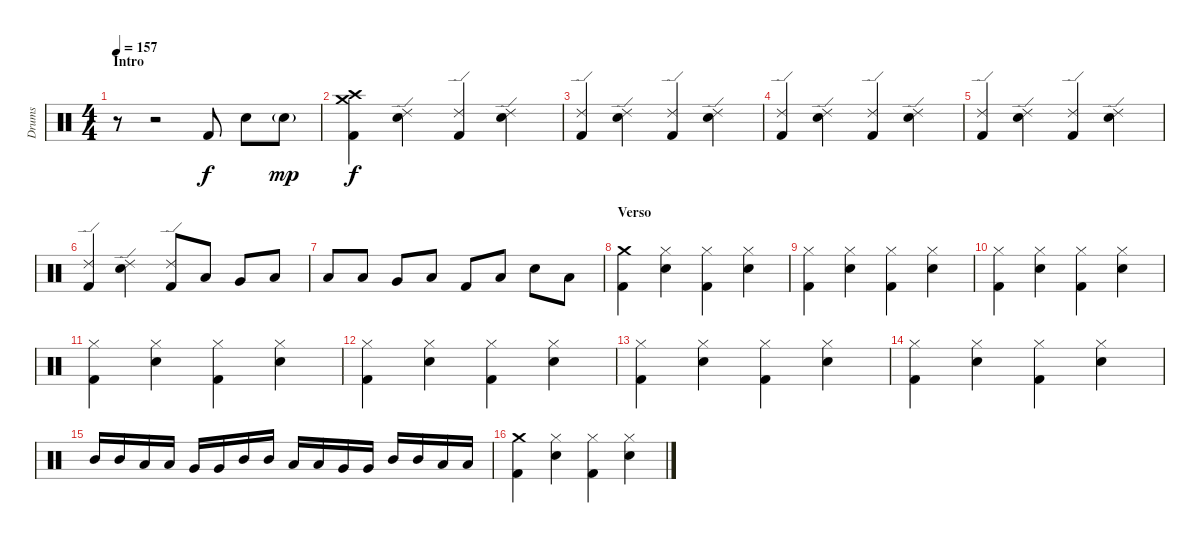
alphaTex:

\track ("Drums" "Drums") {instrument percussion}
\staff {score}
\articulation defaults
\ts (4 4)
\section ("" "Intro")
\tempo 157
\clef neutral
\ks c
r.8{dy f} r.2 "Kick (hit) 2".8 "Electric Snare (hit)".8 "Electric Snare (hit)"{g}.8{dy mp} |
("Crash medium (hit)" "Crash high (hit)" "Kick (hit) 2").4{dy f} ("Ride (edge) 2" "Electric Snare (hit)").4 ("Ride (edge) 2" "Kick (hit) 2").4 ("Ride (edge) 2" "Electric Snare (hit)").4 |
("Ride (edge) 2" "Kick (hit) 2").4 ("Ride (edge) 2" "Electric Snare (hit)").4 ("Ride (edge) 2" "Kick (hit) 2").4 ("Ride (edge) 2" "Electric Snare (hit)").4 |
("Ride (edge) 2" "Kick (hit) 2").4 ("Ride (edge) 2" "Electric Snare (hit)").4 ("Ride (edge) 2" "Kick (hit) 2").4 ("Ride (edge) 2" "Electric Snare (hit)").4 |
("Ride (edge) 2" "Kick (hit) 2").4 ("Ride (edge) 2" "Electric Snare (hit)").4 ("Ride (edge) 2" "Kick (hit) 2").4 ("Ride (edge) 2" "Electric Snare (hit)").4 |
("Ride (edge) 2" "Kick (hit) 2").4 ("Ride (edge) 2" "Electric Snare (hit)").4 ("Ride (edge) 2" "Kick (hit) 2").8 "Low Tom (hit)".8 "Very Low Tom (hit)".8 "Low Floor Tom (hit)".8 |
"Low Tom (hit)".8 "Low Tom (hit)".8 "Very Low Tom (hit)".8 "Low Floor Tom (hit)".8 "Kick (hit) 2".8 "Low Floor Tom (hit)".8 "Electric Snare (hit)".8 "Low Floor Tom (hit)".8 |
\section ("" "Verso")
("Crash medium (hit)" "Kick (hit) 2").4 ("Hi-Hat (closed)" "Electric Snare (hit)").4 ("Hi-Hat (closed)" "Kick (hit) 2").4 ("Hi-Hat (closed)" "Electric Snare (hit)").4 |
("Hi-Hat (closed)" "Kick (hit) 2").4 ("Hi-Hat (closed)" "Electric Snare (hit)").4 ("Hi-Hat (closed)" "Kick (hit) 2").4 ("Hi-Hat (closed)" "Electric Snare (hit)").4 |
("Hi-Hat (closed)" "Kick (hit) 2").4 ("Hi-Hat (closed)" "Electric Snare (hit)").4 ("Hi-Hat (closed)" "Kick (hit) 2").4 ("Hi-Hat (closed)" "Electric Snare (hit)").4 |
("Hi-Hat (closed)" "Kick (hit) 2").4 ("Hi-Hat (closed)" "Electric Snare (hit)").4 ("Hi-Hat (closed)" "Kick (hit) 2").4 ("Hi-Hat (closed)" "Electric Snare (hit)").4 |
("Hi-Hat (closed)" "Kick (hit) 2").4 ("Hi-Hat (closed)" "Electric Snare (hit)").4 ("Hi-Hat (closed)" "Kick (hit) 2").4 ("Hi-Hat (closed)" "Electric Snare (hit)").4 |
("Hi-Hat (closed)" "Kick (hit) 2").4 ("Hi-Hat (closed)" "Electric Snare (hit)").4 ("Hi-Hat (closed)" "Kick (hit) 2").4 ("Hi-Hat (closed)" "Electric Snare (hit)").4 |
("Hi-Hat (closed)" "Kick (hit) 2").4 ("Hi-Hat (closed)" "Electric Snare (hit)").4 ("Hi-Hat (closed)" "Kick (hit) 2").4 ("Hi-Hat (closed)" "Electric Snare (hit)").4 |
"Mid Tom (hit)".16 "Mid Tom (hit)".16 "Low Tom (hit)".16 "Low Tom (hit)".16 "Very Low Tom (hit)".16 "Very Low Tom (hit)".16 "Mid Tom (hit)".16 "Mid Tom (hit)".16 "Low Tom (hit)".16 "Low Tom (hit)".16 "Very Low Tom (hit)".16 "Very Low Tom (hit)".16 "Mid Tom (hit)".16 "Mid Tom (hit)".16 "Low Tom (hit)".16 "Low Tom (hit)".16 |
("Crash medium (hit)" "Kick (hit) 2").4 ("Hi-Hat (closed)" "Electric Snare (hit)").4 ("Hi-Hat (closed)" "Kick (hit) 2").4 ("Hi-Hat (closed)" "Electric Snare (hit)").4
